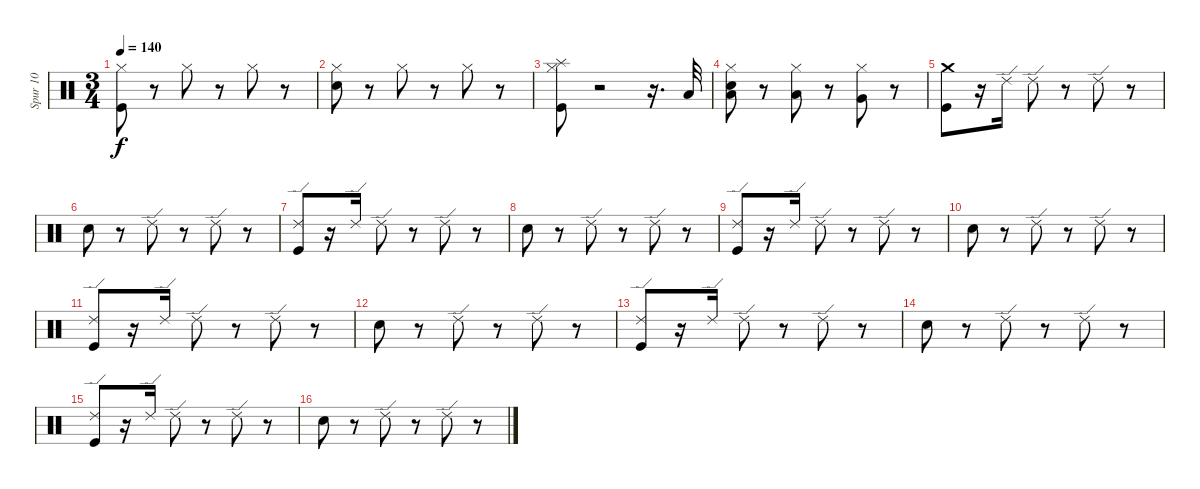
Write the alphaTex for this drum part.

\track ("Spur 10" "Spur 10") {instrument percussion}
\staff {score}
\articulation defaults
\ts (3 4)
\tempo 140
\clef neutral
\ks c
("Kick (hit)" "Hi-Hat (closed)").8{dy f} r.8 "Hi-Hat (closed)".8 r.8 "Hi-Hat (closed)".8 r.8 |
("Snare (hit) 2" "Hi-Hat (closed)").8 r.8 "Hi-Hat (closed)".8 r.8 "Hi-Hat (closed)".8 r.8 |
("Splash (hit)" "Kick (hit)" "Hi-Hat (closed)").8 r.2 r.16{d} "Low Floor Tom (hit)".32 |
("Low Floor Tom (hit)" "Snare (hit) 2" "Hi-Hat (closed)").8 r.8 ("Low Floor Tom (hit)" "Hi-Hat (closed)").8 r.8 ("Very Low Tom (hit)" "Hi-Hat (closed)").8 r.8 |
("Kick (hit)" "Crash medium (hit)").8 r.16 "Ride (edge) 2".16 "Ride (edge) 2".8 r.8 "Ride (edge) 2".8 r.8 |
"Snare (hit) 2".8 r.8 "Ride (edge) 2".8 r.8 "Ride (edge) 2".8 r.8 |
("Ride (edge) 2" "Kick (hit)").8 r.16 "Ride (edge) 2".16 "Ride (edge) 2".8 r.8 "Ride (edge) 2".8 r.8 |
"Snare (hit) 2".8 r.8 "Ride (edge) 2".8 r.8 "Ride (edge) 2".8 r.8 |
("Ride (edge) 2" "Kick (hit)").8 r.16 "Ride (edge) 2".16 "Ride (edge) 2".8 r.8 "Ride (edge) 2".8 r.8 |
"Snare (hit) 2".8 r.8 "Ride (edge) 2".8 r.8 "Ride (edge) 2".8 r.8 |
("Ride (edge) 2" "Kick (hit)").8 r.16 "Ride (edge) 2".16 "Ride (edge) 2".8 r.8 "Ride (edge) 2".8 r.8 |
"Snare (hit) 2".8 r.8 "Ride (edge) 2".8 r.8 "Ride (edge) 2".8 r.8 |
("Ride (edge) 2" "Kick (hit)").8 r.16 "Ride (edge) 2".16 "Ride (edge) 2".8 r.8 "Ride (edge) 2".8 r.8 |
"Snare (hit) 2".8 r.8 "Ride (edge) 2".8 r.8 "Ride (edge) 2".8 r.8 |
("Ride (edge) 2" "Kick (hit)").8 r.16 "Ride (edge) 2".16 "Ride (edge) 2".8 r.8 "Ride (edge) 2".8 r.8 |
"Snare (hit) 2".8 r.8 "Ride (edge) 2".8 r.8 "Ride (edge) 2".8 r.8
